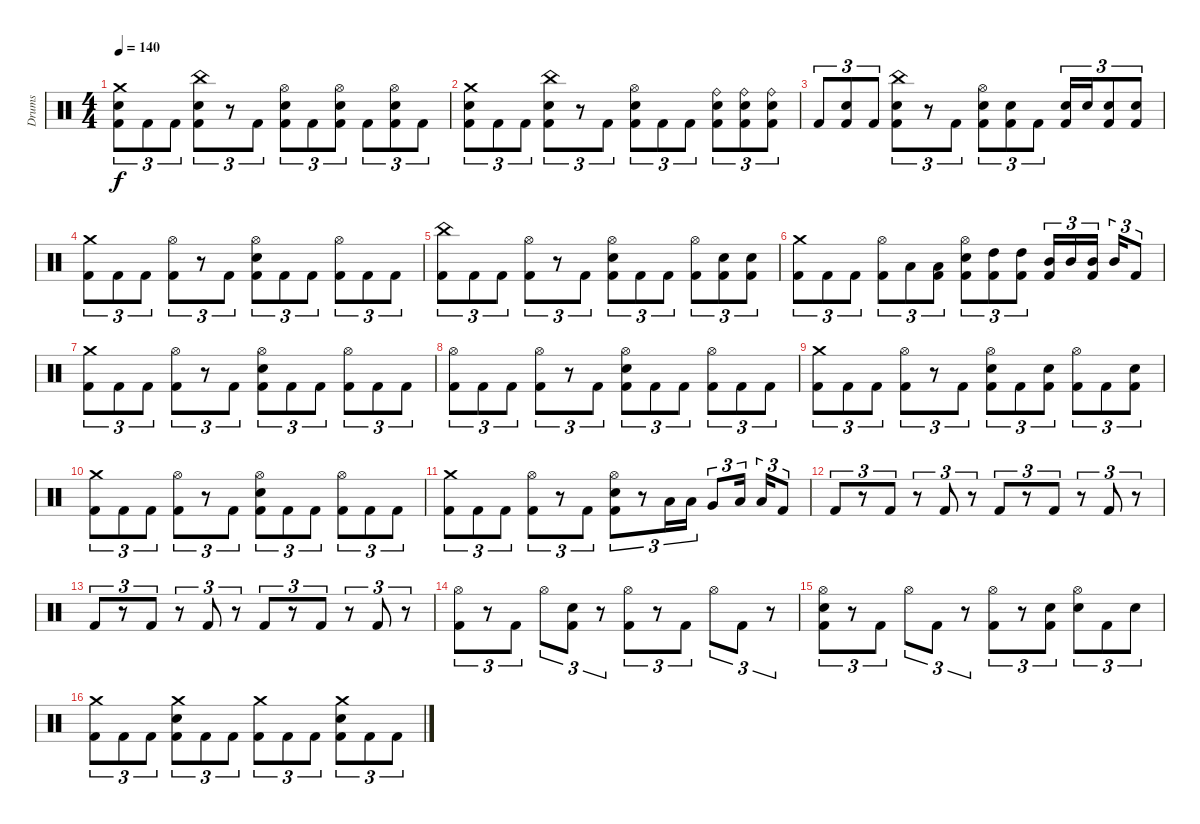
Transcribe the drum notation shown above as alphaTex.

\track ("Drums" "Drums") {instrument percussion}
\staff {score}
\articulation defaults
\ts (4 4)
\tempo 140
\clef neutral
\ks c
("Crash medium (hit)" "Electric Snare (hit)" "Kick (hit) 2").8{tu (3 2) dy f} "Kick (hit) 2".8{tu (3 2)} "Kick (hit) 2".8{tu (3 2)} ("China (hit)" "Electric Snare (hit)" "Kick (hit) 2").8{tu (3 2)} r.8{tu (3 2)} "Kick (hit) 2".8{tu (3 2)} ("Hi-Hat (open)" "Electric Snare (hit)" "Kick (hit) 2").8{tu (3 2)} "Kick (hit) 2".8{tu (3 2)} ("Hi-Hat (open)" "Electric Snare (hit)" "Kick (hit) 2").8{tu (3 2)} "Kick (hit) 2".8{tu (3 2)} ("Hi-Hat (open)" "Electric Snare (hit)" "Kick (hit) 2").8{tu (3 2)} "Kick (hit) 2".8{tu (3 2)} |
("Crash medium (hit)" "Electric Snare (hit)" "Kick (hit) 2").8{tu (3 2)} "Kick (hit) 2".8{tu (3 2)} "Kick (hit) 2".8{tu (3 2)} ("China (hit)" "Electric Snare (hit)" "Kick (hit) 2").8{tu (3 2)} r.8{tu (3 2)} "Kick (hit) 2".8{tu (3 2)} ("Hi-Hat (open)" "Electric Snare (hit)" "Kick (hit) 2").8{tu (3 2)} "Kick (hit) 2".8{tu (3 2)} "Kick (hit) 2".8{tu (3 2)} ("Ride (bell)" "Electric Snare (hit)" "Kick (hit) 2").8{tu (3 2)} ("Ride (bell)" "Electric Snare (hit)" "Kick (hit) 2").8{tu (3 2)} ("Ride (bell)" "Electric Snare (hit)" "Kick (hit) 2").8{tu (3 2)} |
"Kick (hit) 2".8{tu (3 2)} ("Electric Snare (hit)" "Kick (hit) 2").8{tu (3 2)} "Kick (hit) 2".8{tu (3 2)} ("China (hit)" "Electric Snare (hit)" "Kick (hit) 2").8{tu (3 2)} r.8{tu (3 2)} "Kick (hit) 2".8{tu (3 2)} ("Hi-Hat (open)" "Electric Snare (hit)" "Kick (hit) 2").8{tu (3 2)} ("Electric Snare (hit)" "Kick (hit) 2").8{tu (3 2)} "Kick (hit) 2".8{tu (3 2)} ("Electric Snare (hit)" "Kick (hit) 2").16{tu (3 2)} "Electric Snare (hit)".16{tu (3 2)} ("Electric Snare (hit)" "Kick (hit) 2").8{tu (3 2)} ("Electric Snare (hit)" "Kick (hit) 2").8{tu (3 2)} |
("Crash medium (hit)" "Kick (hit) 2").8{tu (3 2)} "Kick (hit) 2".8{tu (3 2)} "Kick (hit) 2".8{tu (3 2)} ("Hi-Hat (open)" "Kick (hit) 2").8{tu (3 2)} r.8{tu (3 2)} "Kick (hit) 2".8{tu (3 2)} ("Hi-Hat (open)" "Electric Snare (hit)" "Kick (hit) 2").8{tu (3 2)} "Kick (hit) 2".8{tu (3 2)} "Kick (hit) 2".8{tu (3 2)} ("Hi-Hat (open)" "Kick (hit) 2").8{tu (3 2)} "Kick (hit) 2".8{tu (3 2)} "Kick (hit) 2".8{tu (3 2)} |
("China (hit)" "Kick (hit) 2").8{tu (3 2)} "Kick (hit) 2".8{tu (3 2)} "Kick (hit) 2".8{tu (3 2)} ("Hi-Hat (open)" "Kick (hit) 2").8{tu (3 2)} r.8{tu (3 2)} "Kick (hit) 2".8{tu (3 2)} ("Hi-Hat (open)" "Electric Snare (hit)" "Kick (hit) 2").8{tu (3 2)} "Kick (hit) 2".8{tu (3 2)} "Kick (hit) 2".8{tu (3 2)} ("Hi-Hat (open)" "Kick (hit) 2").8{tu (3 2)} ("Electric Snare (hit)" "Kick (hit) 2").8{tu (3 2)} ("Electric Snare (hit)" "Kick (hit) 2").8{tu (3 2)} |
("Crash medium (hit)" "Kick (hit) 2").8{tu (3 2)} "Kick (hit) 2".8{tu (3 2)} "Kick (hit) 2".8{tu (3 2)} ("Hi-Hat (open)" "Kick (hit) 2").8{tu (3 2)} "Low Floor Tom (hit)".8{tu (3 2)} ("Low Floor Tom (hit)" "Kick (hit) 2").8{tu (3 2)} ("Hi-Hat (open)" "Electric Snare (hit)" "Kick (hit) 2").8{tu (3 2)} ("High Tom (hit)" "Kick (hit) 2").8{tu (3 2)} ("High Tom (hit)" "Kick (hit) 2").8{tu (3 2)} ("Mid Tom (hit)" "Kick (hit) 2").16{tu (3 2)} "Mid Tom (hit)".16{tu (3 2)} ("Mid Tom (hit)" "Kick (hit) 2").16{tu (3 2)} "Mid Tom (hit)".16{tu (3 2)} "Kick (hit) 2".8{tu (3 2)} |
("Crash medium (hit)" "Kick (hit) 2").8{tu (3 2)} "Kick (hit) 2".8{tu (3 2)} "Kick (hit) 2".8{tu (3 2)} ("Hi-Hat (open)" "Kick (hit) 2").8{tu (3 2)} r.8{tu (3 2)} "Kick (hit) 2".8{tu (3 2)} ("Hi-Hat (open)" "Electric Snare (hit)" "Kick (hit) 2").8{tu (3 2)} "Kick (hit) 2".8{tu (3 2)} "Kick (hit) 2".8{tu (3 2)} ("Hi-Hat (open)" "Kick (hit) 2").8{tu (3 2)} "Kick (hit) 2".8{tu (3 2)} "Kick (hit) 2".8{tu (3 2)} |
("Hi-Hat (open)" "Kick (hit) 2").8{tu (3 2)} "Kick (hit) 2".8{tu (3 2)} "Kick (hit) 2".8{tu (3 2)} ("Hi-Hat (open)" "Kick (hit) 2").8{tu (3 2)} r.8{tu (3 2)} "Kick (hit) 2".8{tu (3 2)} ("Hi-Hat (open)" "Electric Snare (hit)" "Kick (hit) 2").8{tu (3 2)} "Kick (hit) 2".8{tu (3 2)} "Kick (hit) 2".8{tu (3 2)} ("Hi-Hat (open)" "Kick (hit) 2").8{tu (3 2)} "Kick (hit) 2".8{tu (3 2)} "Kick (hit) 2".8{tu (3 2)} |
("Crash medium (hit)" "Kick (hit) 2").8{tu (3 2)} "Kick (hit) 2".8{tu (3 2)} "Kick (hit) 2".8{tu (3 2)} ("Hi-Hat (open)" "Kick (hit) 2").8{tu (3 2)} r.8{tu (3 2)} "Kick (hit) 2".8{tu (3 2)} ("Hi-Hat (open)" "Electric Snare (hit)" "Kick (hit) 2").8{tu (3 2)} "Kick (hit) 2".8{tu (3 2)} ("Electric Snare (hit)" "Kick (hit) 2").8{tu (3 2)} ("Hi-Hat (open)" "Kick (hit) 2").8{tu (3 2)} "Kick (hit) 2".8{tu (3 2)} ("Electric Snare (hit)" "Kick (hit) 2").8{tu (3 2)} |
("Crash medium (hit)" "Kick (hit) 2").8{tu (3 2)} "Kick (hit) 2".8{tu (3 2)} "Kick (hit) 2".8{tu (3 2)} ("Hi-Hat (open)" "Kick (hit) 2").8{tu (3 2)} r.8{tu (3 2)} "Kick (hit) 2".8{tu (3 2)} ("Hi-Hat (open)" "Electric Snare (hit)" "Kick (hit) 2").8{tu (3 2)} "Kick (hit) 2".8{tu (3 2)} "Kick (hit) 2".8{tu (3 2)} ("Hi-Hat (open)" "Kick (hit) 2").8{tu (3 2)} "Kick (hit) 2".8{tu (3 2)} "Kick (hit) 2".8{tu (3 2)} |
("Crash medium (hit)" "Kick (hit) 2").8{tu (3 2)} "Kick (hit) 2".8{tu (3 2)} "Kick (hit) 2".8{tu (3 2)} ("Hi-Hat (open)" "Kick (hit) 2").8{tu (3 2)} r.8{tu (3 2)} "Kick (hit) 2".8{tu (3 2)} ("Hi-Hat (open)" "Electric Snare (hit)" "Kick (hit) 2").8{tu (3 2)} r.8{tu (3 2)} "Low Floor Tom (hit)".16{tu (3 2)} "Low Floor Tom (hit)".16{tu (3 2)} "Very Low Tom (hit)".8{tu (3 2)} "Low Floor Tom (hit)".16{tu (3 2)} "Low Floor Tom (hit)".16{tu (3 2)} "Kick (hit) 2".8{tu (3 2)} |
"Kick (hit) 2".8{tu (3 2)} r.8{tu (3 2)} "Kick (hit) 2".8{tu (3 2)} r.8{tu (3 2)} "Kick (hit) 2".8{tu (3 2)} r.8{tu (3 2)} "Kick (hit) 2".8{tu (3 2)} r.8{tu (3 2)} "Kick (hit) 2".8{tu (3 2)} r.8{tu (3 2)} "Kick (hit) 2".8{tu (3 2)} r.8{tu (3 2)} |
"Kick (hit) 2".8{tu (3 2)} r.8{tu (3 2)} "Kick (hit) 2".8{tu (3 2)} r.8{tu (3 2)} "Kick (hit) 2".8{tu (3 2)} r.8{tu (3 2)} "Kick (hit) 2".8{tu (3 2)} r.8{tu (3 2)} "Kick (hit) 2".8{tu (3 2)} r.8{tu (3 2)} "Kick (hit) 2".8{tu (3 2)} r.8{tu (3 2)} |
("Hi-Hat (open)" "Kick (hit) 2").8{tu (3 2)} r.8{tu (3 2)} "Kick (hit) 2".8{tu (3 2)} "Hi-Hat (open)".8{tu (3 2)} ("Electric Snare (hit)" "Kick (hit) 2").8{tu (3 2)} r.8{tu (3 2)} ("Hi-Hat (open)" "Kick (hit) 2").8{tu (3 2)} r.8{tu (3 2)} "Kick (hit) 2".8{tu (3 2)} "Hi-Hat (open)".8{tu (3 2)} "Kick (hit) 2".8{tu (3 2)} r.8{tu (3 2)} |
("Hi-Hat (open)" "Electric Snare (hit)" "Kick (hit) 2").8{tu (3 2)} r.8{tu (3 2)} "Kick (hit) 2".8{tu (3 2)} "Hi-Hat (open)".8{tu (3 2)} "Kick (hit) 2".8{tu (3 2)} r.8{tu (3 2)} ("Hi-Hat (open)" "Kick (hit) 2").8{tu (3 2)} r.8{tu (3 2)} ("Electric Snare (hit)" "Kick (hit) 2").8{tu (3 2)} ("Hi-Hat (open)" "Electric Snare (hit)").8{tu (3 2)} "Kick (hit) 2".8{tu (3 2)} "Electric Snare (hit)".8{tu (3 2)} |
("Crash medium (hit)" "Kick (hit) 2").8{tu (3 2)} "Kick (hit) 2".8{tu (3 2)} "Kick (hit) 2".8{tu (3 2)} ("Crash medium (hit)" "Electric Snare (hit)" "Kick (hit) 2").8{tu (3 2)} "Kick (hit) 2".8{tu (3 2)} "Kick (hit) 2".8{tu (3 2)} ("Crash medium (hit)" "Kick (hit) 2").8{tu (3 2)} "Kick (hit) 2".8{tu (3 2)} "Kick (hit) 2".8{tu (3 2)} ("Crash medium (hit)" "Electric Snare (hit)" "Kick (hit) 2").8{tu (3 2)} "Kick (hit) 2".8{tu (3 2)} "Kick (hit) 2".8{tu (3 2)}
